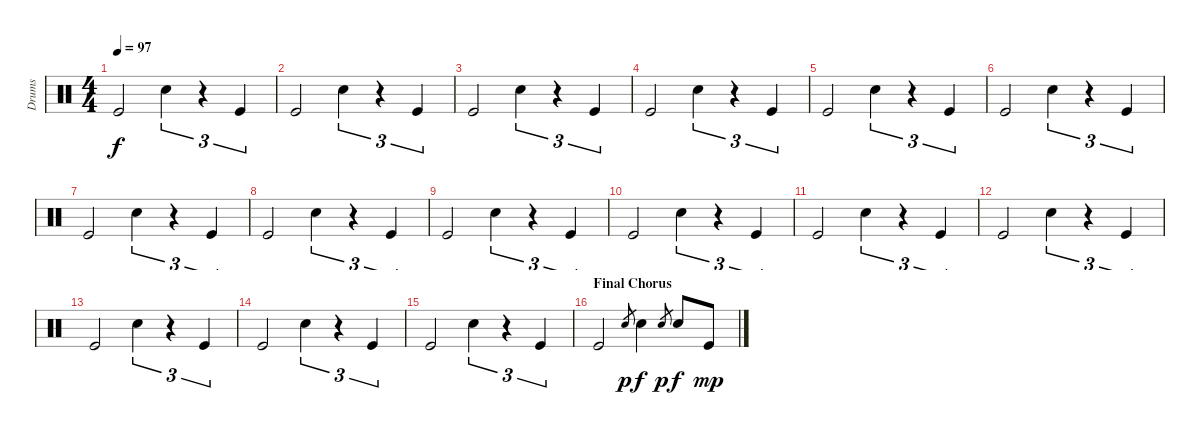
\track ("Drums" "Drums") {instrument percussion}
\staff {score}
\articulation defaults
\ts (4 4)
\tempo 97
\clef neutral
\ks c "Kick (hit)".2{dy f} "Snare (hit) 2".4{tu (3 2)}
r.4{tu (3 2)} "Kick (hit)".4{tu (3 2)} |
"Kick (hit)".2 "Snare (hit) 2".4{tu (3 2)} r.4{tu (3 2)} "Kick (hit)".4{tu (3 2)} |
"Kick (hit)".2 "Snare (hit) 2".4{tu (3 2)} r.4{tu (3 2)} "Kick (hit)".4{tu (3 2)} |
"Kick (hit)".2 "Snare (hit) 2".4{tu (3 2)} r.4{tu (3 2)} "Kick (hit)".4{tu (3 2)} |
"Kick (hit)".2 "Snare (hit) 2".4{tu (3 2)} r.4{tu (3 2)} "Kick (hit)".4{tu (3 2)} |
"Kick (hit)".2 "Snare (hit) 2".4{tu (3 2)} r.4{tu (3 2)} "Kick (hit)".4{tu (3 2)} |
"Kick (hit)".2 "Snare (hit) 2".4{tu (3 2)} r.4{tu (3 2)} "Kick (hit)".4{tu (3 2)} |
"Kick (hit)".2 "Snare (hit) 2".4{tu (3 2)} r.4{tu (3 2)} "Kick (hit)".4{tu (3 2)} |
"Kick (hit)".2 "Snare (hit) 2".4{tu (3 2)} r.4{tu (3 2)} "Kick (hit)".4{tu (3 2)} |
"Kick (hit)".2 "Snare (hit) 2".4{tu (3 2)} r.4{tu (3 2)} "Kick (hit)".4{tu (3 2)} |
"Kick (hit)".2 "Snare (hit) 2".4{tu (3 2)} r.4{tu (3 2)} "Kick (hit)".4{tu (3 2)} |
"Kick (hit)".2 "Snare (hit) 2".4{tu (3 2)} r.4{tu (3 2)} "Kick (hit)".4{tu (3 2)} |
"Kick (hit)".2 "Snare (hit) 2".4{tu (3 2)} r.4{tu (3 2)} "Kick (hit)".4{tu (3 2)} |
"Kick (hit)".2 "Snare (hit) 2".4{tu (3 2)} r.4{tu (3 2)} "Kick (hit)".4{tu (3 2)} |
"Kick (hit)".2 "Snare (hit) 2".4{tu (3 2)} r.4{tu (3 2)} "Kick (hit)".4{tu (3 2)} |
\section ("" "Final Chorus")
"Kick (hit)".2 "Snare (hit) 2".8{gr dy p} "Snare (hit) 2".4{dy f} "Snare (hit) 2".8{gr dy p} "Snare (hit) 2".8{dy f} "Kick (hit)".8{dy mp}
